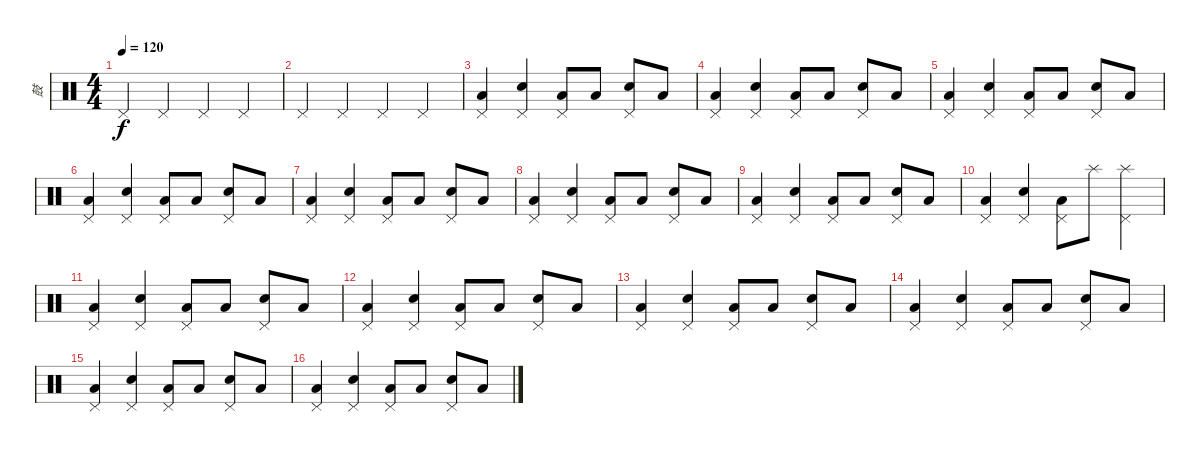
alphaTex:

\track ("鼓" "鼓") {instrument percussion}
\staff {score}
\articulation defaults
\ts (4 4)
\tempo 120
\clef neutral
\ks c "Pedal Hi-Hat (hit)".4{dy f} "Pedal Hi-Hat (hit)".4 "Pedal Hi-Hat (hit)".4 "Pedal Hi-Hat (hit)".4
|
"Pedal Hi-Hat (hit)".4 "Pedal Hi-Hat (hit)".4 "Pedal Hi-Hat (hit)".4 "Pedal Hi-Hat (hit)".4 |
("Pedal Hi-Hat (hit)" "Low Floor Tom (hit)").4 ("Pedal Hi-Hat (hit)" "Snare (hit) 2").4 ("Pedal Hi-Hat (hit)" "Low Floor Tom (hit)").8 "Low Floor Tom (hit)".8 ("Pedal Hi-Hat (hit)" "Snare (hit) 2").8 "Low Floor Tom (hit)".8 |
("Pedal Hi-Hat (hit)" "Low Floor Tom (hit)").4 ("Pedal Hi-Hat (hit)" "Snare (hit) 2").4 ("Pedal Hi-Hat (hit)" "Low Floor Tom (hit)").8 "Low Floor Tom (hit)".8 ("Pedal Hi-Hat (hit)" "Snare (hit) 2").8 "Low Floor Tom (hit)".8 |
("Pedal Hi-Hat (hit)" "Low Floor Tom (hit)").4 ("Pedal Hi-Hat (hit)" "Snare (hit) 2").4 ("Pedal Hi-Hat (hit)" "Low Floor Tom (hit)").8 "Low Floor Tom (hit)".8 ("Pedal Hi-Hat (hit)" "Snare (hit) 2").8 "Low Floor Tom (hit)".8 |
("Pedal Hi-Hat (hit)" "Low Floor Tom (hit)").4 ("Pedal Hi-Hat (hit)" "Snare (hit) 2").4 ("Pedal Hi-Hat (hit)" "Low Floor Tom (hit)").8 "Low Floor Tom (hit)".8 ("Pedal Hi-Hat (hit)" "Snare (hit) 2").8 "Low Floor Tom (hit)".8 |
("Pedal Hi-Hat (hit)" "Low Floor Tom (hit)").4 ("Pedal Hi-Hat (hit)" "Snare (hit) 2").4 ("Pedal Hi-Hat (hit)" "Low Floor Tom (hit)").8 "Low Floor Tom (hit)".8 ("Pedal Hi-Hat (hit)" "Snare (hit) 2").8 "Low Floor Tom (hit)".8 |
("Pedal Hi-Hat (hit)" "Low Floor Tom (hit)").4 ("Pedal Hi-Hat (hit)" "Snare (hit) 2").4 ("Pedal Hi-Hat (hit)" "Low Floor Tom (hit)").8 "Low Floor Tom (hit)".8 ("Pedal Hi-Hat (hit)" "Snare (hit) 2").8 "Low Floor Tom (hit)".8 |
("Pedal Hi-Hat (hit)" "Low Floor Tom (hit)").4 ("Pedal Hi-Hat (hit)" "Snare (hit) 2").4 ("Pedal Hi-Hat (hit)" "Low Floor Tom (hit)").8 "Low Floor Tom (hit)".8 ("Pedal Hi-Hat (hit)" "Snare (hit) 2").8 "Low Floor Tom (hit)".8 |
("Pedal Hi-Hat (hit)" "Low Floor Tom (hit)").4 ("Pedal Hi-Hat (hit)" "Snare (hit) 2").4 ("Pedal Hi-Hat (hit)" "Low Floor Tom (hit)").8 "Splash (hit)".8 ("Pedal Hi-Hat (hit)" "Splash (hit)").4 |
("Pedal Hi-Hat (hit)" "Low Floor Tom (hit)").4 ("Pedal Hi-Hat (hit)" "Snare (hit) 2").4 ("Pedal Hi-Hat (hit)" "Low Floor Tom (hit)").8 "Low Floor Tom (hit)".8 ("Pedal Hi-Hat (hit)" "Snare (hit) 2").8 "Low Floor Tom (hit)".8 |
("Pedal Hi-Hat (hit)" "Low Floor Tom (hit)").4 ("Pedal Hi-Hat (hit)" "Snare (hit) 2").4 ("Pedal Hi-Hat (hit)" "Low Floor Tom (hit)").8 "Low Floor Tom (hit)".8 ("Pedal Hi-Hat (hit)" "Snare (hit) 2").8 "Low Floor Tom (hit)".8 |
("Pedal Hi-Hat (hit)" "Low Floor Tom (hit)").4 ("Pedal Hi-Hat (hit)" "Snare (hit) 2").4 ("Pedal Hi-Hat (hit)" "Low Floor Tom (hit)").8 "Low Floor Tom (hit)".8 ("Pedal Hi-Hat (hit)" "Snare (hit) 2").8 "Low Floor Tom (hit)".8 |
("Pedal Hi-Hat (hit)" "Low Floor Tom (hit)").4 ("Pedal Hi-Hat (hit)" "Snare (hit) 2").4 ("Pedal Hi-Hat (hit)" "Low Floor Tom (hit)").8 "Low Floor Tom (hit)".8 ("Pedal Hi-Hat (hit)" "Snare (hit) 2").8 "Low Floor Tom (hit)".8 |
("Pedal Hi-Hat (hit)" "Low Floor Tom (hit)").4 ("Pedal Hi-Hat (hit)" "Snare (hit) 2").4 ("Pedal Hi-Hat (hit)" "Low Floor Tom (hit)").8 "Low Floor Tom (hit)".8 ("Pedal Hi-Hat (hit)" "Snare (hit) 2").8 "Low Floor Tom (hit)".8 |
("Pedal Hi-Hat (hit)" "Low Floor Tom (hit)").4 ("Pedal Hi-Hat (hit)" "Snare (hit) 2").4 ("Pedal Hi-Hat (hit)" "Low Floor Tom (hit)").8 "Low Floor Tom (hit)".8 ("Pedal Hi-Hat (hit)" "Snare (hit) 2").8 "Low Floor Tom (hit)".8
